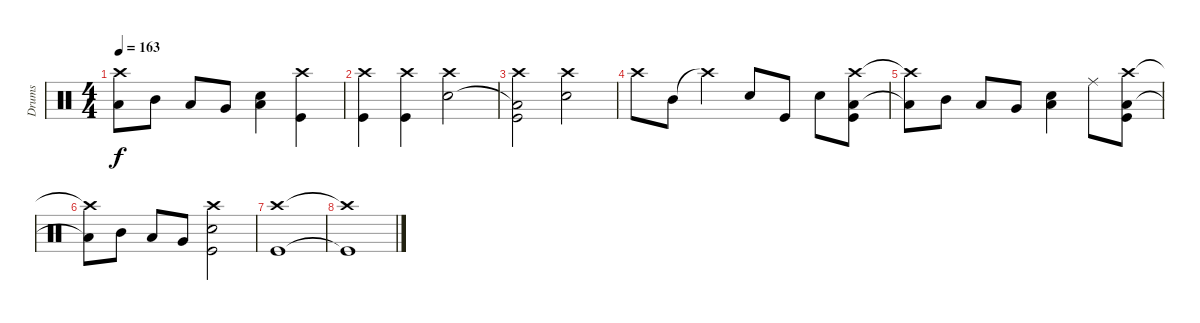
\track ("Drums" "Drums") {instrument percussion}
\staff {score}
\articulation defaults
\ts (4 4)
\tempo 163
\clef neutral
\ks c
("Crash high (hit)"{t} "Low Floor Tom (hit)"{t}).8{dy f} "Mid Tom (hit)".8 "Low Tom (hit)".8 "Very Low Tom (hit)".8 ("Snare (hit) 2" "Low Floor Tom (hit)").4 ("Crash high (hit)" "Kick (hit)").4 |
("Crash high (hit)" "Kick (hit)").4 ("Crash high (hit)" "Kick (hit)").4 ("Crash high (hit)" "Snare (hit) 2").2 |
("Crash high (hit)" "Low Floor Tom (hit)"{t} "Kick (hit)").2 ("Crash high (hit)" "Snare (hit) 2").2 |
"Crash high (hit)".8 "Mid Tom (hit)".8 "Crash high (hit)"{t}.4 "Snare (hit) 2".8 "Kick (hit)".8 "Snare (hit) 2".8 ("Crash high (hit)" "Low Floor Tom (hit)" "Kick (hit)").8 |
("Crash high (hit)"{t} "Low Floor Tom (hit)"{t}).8 "Mid Tom (hit)".8 "Low Tom (hit)".8 "Very Low Tom (hit)".8 ("Snare (hit) 2" "Low Floor Tom (hit)").4 "Ride (middle)".8 ("Crash high (hit)" "Low Floor Tom (hit)" "Kick (hit)").8 |
("Crash high (hit)"{t} "Low Floor Tom (hit)"{t}).8 "Mid Tom (hit)".8 "Low Tom (hit)".8 "Very Low Tom (hit)".8 ("Crash high (hit)" "Snare (hit) 2" "Kick (hit)").2 |
("Crash high (hit)" "Kick (hit)").1 |
("Crash high (hit)"{t} "Kick (hit)"{t}).1
